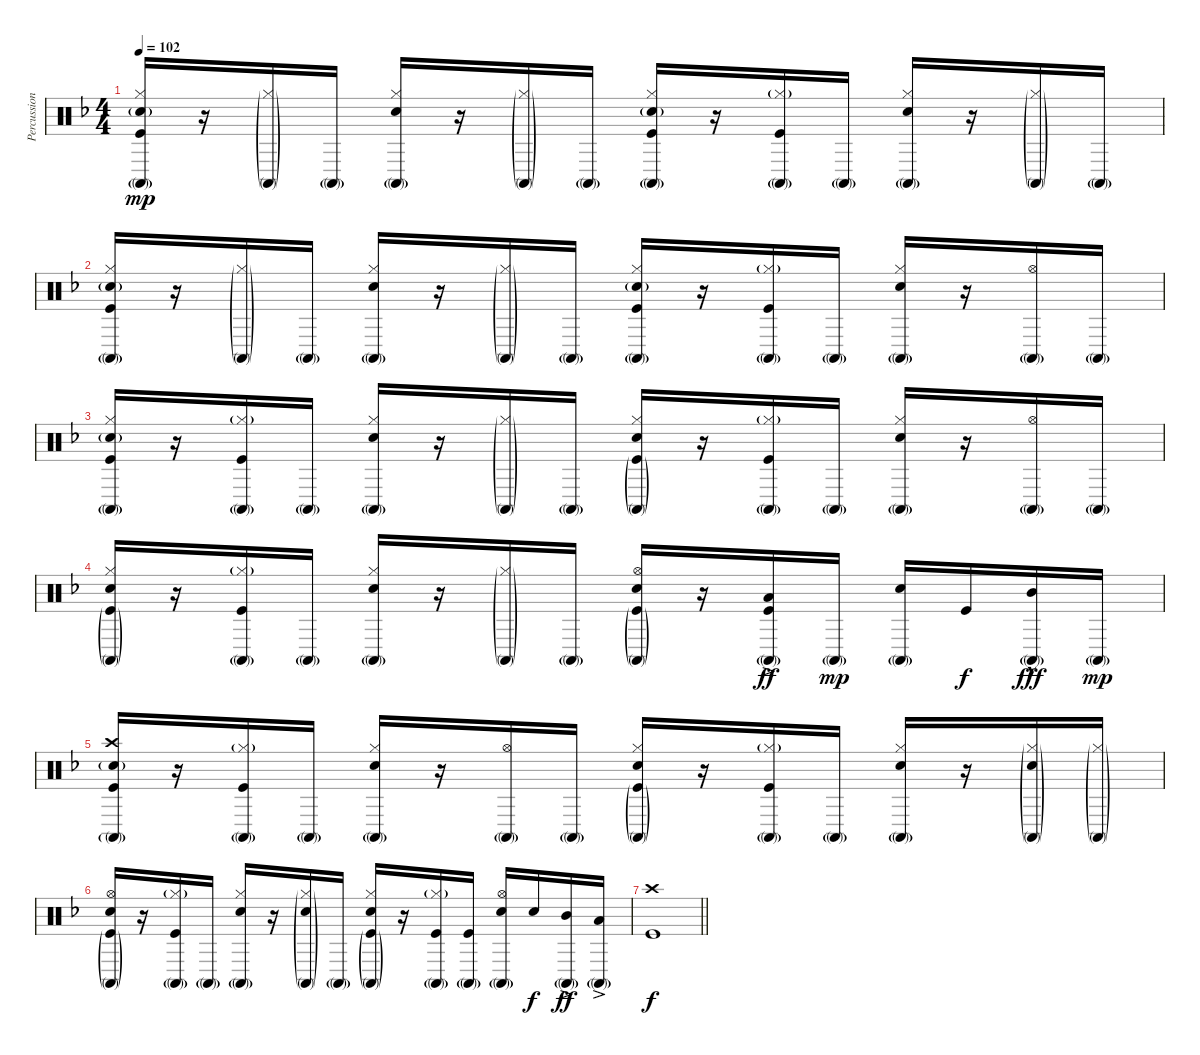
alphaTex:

\track ("Percussion" "Percussion") {instrument percussion bank 255}
\staff {score}
\articulation defaults
\ts (4 4)
\tempo 102
\clef neutral
\ks f
("Conga high (mute)"{g} "Hi-Hat (closed)" "Snare (hit) 2"{g} "Kick (hit)").16{dy mp} r.16 ("Conga high (mute)"{g} "Hi-Hat (closed)"{g}).16 "Conga high (mute)"{g}.16 ("Conga high (mute)"{g} "Hi-Hat (closed)" "Snare (hit) 2").16 r.16 ("Conga high (mute)"{g} "Hi-Hat (closed)"{g}).16 "Conga high (mute)"{g}.16 ("Conga high (mute)"{g} "Hi-Hat (closed)" "Snare (hit) 2"{g} "Kick (hit)").16 r.16 ("Conga high (mute)"{g} "Hi-Hat (closed)"{g} "Kick (hit)").16 "Conga high (mute)"{g}.16 ("Conga high (mute)"{g} "Hi-Hat (closed)" "Snare (hit) 2").16 r.16 ("Conga high (mute)"{g} "Hi-Hat (closed)"{g}).16 "Conga high (mute)"{g}.16 |
("Conga high (mute)"{g} "Hi-Hat (closed)" "Snare (hit) 2"{g} "Kick (hit)").16 r.16 ("Conga high (mute)"{g} "Hi-Hat (closed)"{g}).16 "Conga high (mute)"{g}.16 ("Conga high (mute)"{g} "Hi-Hat (closed)" "Snare (hit) 2").16 r.16 ("Conga high (mute)"{g} "Hi-Hat (closed)"{g}).16 "Conga high (mute)"{g}.16 ("Conga high (mute)"{g} "Hi-Hat (closed)" "Snare (hit) 2"{g} "Kick (hit)").16 r.16 ("Conga high (mute)"{g} "Hi-Hat (closed)"{g} "Kick (hit)").16 "Conga high (mute)"{g}.16 ("Conga high (mute)"{g} "Hi-Hat (closed)" "Snare (hit) 2").16 r.16 ("Conga high (mute)"{g} "Hi-Hat (open)").16 "Conga high (mute)"{g}.16 |
("Conga high (mute)"{g} "Hi-Hat (closed)" "Snare (hit) 2"{g} "Kick (hit)").16 r.16 ("Conga high (mute)"{g} "Hi-Hat (closed)"{g} "Kick (hit)").16 "Conga high (mute)"{g}.16 ("Conga high (mute)"{g} "Hi-Hat (closed)" "Snare (hit) 2").16 r.16 ("Conga high (mute)"{g} "Hi-Hat (closed)"{g}).16 "Conga high (mute)"{g}.16 ("Conga high (mute)"{g} "Hi-Hat (closed)" "Snare (hit) 2" "Kick (hit)"{g}).16 r.16 ("Conga high (mute)"{g} "Hi-Hat (closed)"{g} "Kick (hit)").16 "Conga high (mute)"{g}.16 ("Conga high (mute)"{g} "Hi-Hat (closed)" "Snare (hit) 2").16 r.16 ("Conga high (mute)"{g} "Hi-Hat (open)").16 "Conga high (mute)"{g}.16 |
("Conga high (mute)"{g} "Hi-Hat (closed)" "Snare (hit) 2" "Kick (hit)"{g}).16 r.16 ("Conga high (mute)"{g} "Hi-Hat (closed)"{g} "Kick (hit)").16 "Conga high (mute)"{g}.16 ("Conga high (mute)"{g} "Hi-Hat (closed)" "Snare (hit) 2").16 r.16 ("Conga high (mute)"{g} "Hi-Hat (closed)"{g}).16 "Conga high (mute)"{g}.16 ("Conga high (mute)"{g} "Hi-Hat (open)" "Snare (hit) 2" "Kick (hit)"{g}).16 r.16 ("Conga high (mute)"{g} "Low Tom (hit)"{ac} "Kick (hit)").16{dy ff} "Conga high (mute)"{g}.16{dy mp} ("Conga high (mute)"{g} "Snare (hit) 2").16 "Kick (hit)".16{dy f} ("Conga high (mute)"{g} "Mid Tom (hit)"{hac}).16{dy fff} "Conga high (mute)"{g}.16{dy mp} |
("Conga high (mute)"{g} "Crash high (hit)" "Snare (hit) 2"{g} "Kick (hit)").16 r.16 ("Conga high (mute)"{g} "Hi-Hat (closed)"{g} "Kick (hit)").16 "Conga high (mute)"{g}.16 ("Conga high (mute)"{g} "Hi-Hat (closed)" "Snare (hit) 2").16 r.16 ("Conga high (mute)"{g} "Hi-Hat (open)").16 "Conga high (mute)"{g}.16 ("Conga high (mute)"{g} "Hi-Hat (closed)" "Snare (hit) 2" "Kick (hit)"{g}).16 r.16 ("Conga high (mute)"{g} "Hi-Hat (closed)"{g} "Kick (hit)").16 "Conga high (mute)"{g}.16 ("Conga high (mute)"{g} "Hi-Hat (closed)" "Snare (hit) 2").16 r.16 ("Conga high (mute)"{g} "Hi-Hat (closed)"{g} "Snare (hit) 2"{g}).16 ("Conga high (mute)"{g} "Hi-Hat (closed)"{g}).16 |
("Conga high (mute)"{g} "Hi-Hat (open)" "Snare (hit) 2" "Kick (hit)"{g}).16 r.16 ("Conga high (mute)"{g} "Hi-Hat (closed)"{g} "Kick (hit)").16 "Conga high (mute)"{g}.16 ("Conga high (mute)"{g} "Hi-Hat (closed)" "Snare (hit) 2").16 r.16 ("Conga high (mute)"{g} "Hi-Hat (closed)"{g} "Snare (hit) 2"{g}).16 "Conga high (mute)"{g}.16 ("Conga high (mute)"{g} "Hi-Hat (closed)" "Snare (hit) 2" "Kick (hit)"{g}).16 r.16 ("Conga high (mute)"{g} "Hi-Hat (closed)"{g} "Kick (hit)").16 ("Conga high (mute)"{g} "Kick (hit)").16 ("Conga high (mute)"{g} "Hi-Hat (open)" "Snare (hit) 2").16 "Snare (hit) 2".16{dy f} ("Conga high (mute)"{g} "Mid Tom (hit)"{ac}).16{dy ff} ("Conga high (mute)"{g} "Low Tom (hit)"{ac}).16 |
\barLineRight lightlight
("Crash high (hit)" "Kick (hit)").1{dy f}
